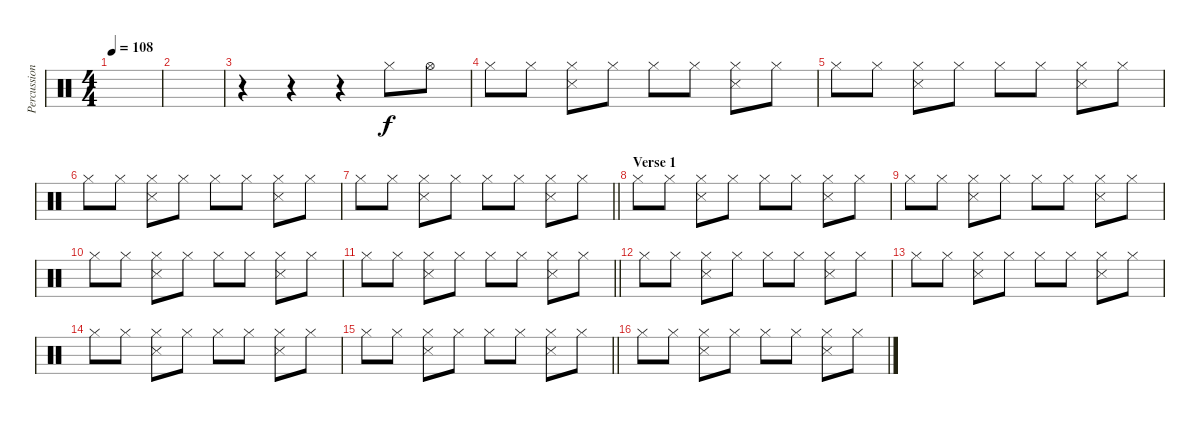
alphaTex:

\track ("Percussion" "Percussion") {instrument percussion}
\staff {score}
\articulation defaults
\ts (4 4)
\tempo 108
\clef neutral
\ks c
|
|
r.4 r.4 r.4 "Hi-Hat (closed)".8 "Hi-Hat (open)".8 |
"Hi-Hat (closed)".8 "Hi-Hat (closed)".8 ("Hi-Hat (closed)" "Snare (side stick) 3").8 "Hi-Hat (closed)".8 "Hi-Hat (closed)".8 "Hi-Hat (closed)".8 ("Hi-Hat (closed)" "Snare (side stick) 3").8 "Hi-Hat (closed)".8 |
"Hi-Hat (closed)".8 "Hi-Hat (closed)".8 ("Hi-Hat (closed)" "Snare (side stick) 3").8 "Hi-Hat (closed)".8 "Hi-Hat (closed)".8 "Hi-Hat (closed)".8 ("Hi-Hat (closed)" "Snare (side stick) 3").8 "Hi-Hat (closed)".8 |
"Hi-Hat (closed)".8 "Hi-Hat (closed)".8 ("Hi-Hat (closed)" "Snare (side stick) 3").8 "Hi-Hat (closed)".8 "Hi-Hat (closed)".8 "Hi-Hat (closed)".8 ("Hi-Hat (closed)" "Snare (side stick) 3").8 "Hi-Hat (closed)".8 |
\barLineRight lightlight "Hi-Hat (closed)".8 "Hi-Hat (closed)".8
("Hi-Hat (closed)" "Snare (side stick) 3").8 "Hi-Hat (closed)".8 "Hi-Hat (closed)".8 "Hi-Hat (closed)".8 ("Hi-Hat (closed)" "Snare (side stick) 3").8 "Hi-Hat (closed)".8 |
\section ("" "Verse 1")
"Hi-Hat (closed)".8 "Hi-Hat (closed)".8 ("Hi-Hat (closed)" "Snare (side stick) 3").8 "Hi-Hat (closed)".8 "Hi-Hat (closed)".8 "Hi-Hat (closed)".8 ("Hi-Hat (closed)" "Snare (side stick) 3").8 "Hi-Hat (closed)".8 |
"Hi-Hat (closed)".8 "Hi-Hat (closed)".8 ("Hi-Hat (closed)" "Snare (side stick) 3").8 "Hi-Hat (closed)".8 "Hi-Hat (closed)".8 "Hi-Hat (closed)".8 ("Hi-Hat (closed)" "Snare (side stick) 3").8 "Hi-Hat (closed)".8 |
"Hi-Hat (closed)".8 "Hi-Hat (closed)".8 ("Hi-Hat (closed)" "Snare (side stick) 3").8 "Hi-Hat (closed)".8 "Hi-Hat (closed)".8 "Hi-Hat (closed)".8 ("Hi-Hat (closed)" "Snare (side stick) 3").8 "Hi-Hat (closed)".8 |
\barLineRight lightlight "Hi-Hat (closed)".8 "Hi-Hat (closed)".8
("Hi-Hat (closed)" "Snare (side stick) 3").8 "Hi-Hat (closed)".8 "Hi-Hat (closed)".8 "Hi-Hat (closed)".8 ("Hi-Hat (closed)" "Snare (side stick) 3").8 "Hi-Hat (closed)".8 |
"Hi-Hat (closed)".8 "Hi-Hat (closed)".8 ("Hi-Hat (closed)" "Snare (side stick) 3").8 "Hi-Hat (closed)".8 "Hi-Hat (closed)".8 "Hi-Hat (closed)".8 ("Hi-Hat (closed)" "Snare (side stick) 3").8 "Hi-Hat (closed)".8 |
"Hi-Hat (closed)".8 "Hi-Hat (closed)".8 ("Hi-Hat (closed)" "Snare (side stick) 3").8 "Hi-Hat (closed)".8 "Hi-Hat (closed)".8 "Hi-Hat (closed)".8 ("Hi-Hat (closed)" "Snare (side stick) 3").8 "Hi-Hat (closed)".8 |
"Hi-Hat (closed)".8 "Hi-Hat (closed)".8 ("Hi-Hat (closed)" "Snare (side stick) 3").8 "Hi-Hat (closed)".8 "Hi-Hat (closed)".8 "Hi-Hat (closed)".8 ("Hi-Hat (closed)" "Snare (side stick) 3").8 "Hi-Hat (closed)".8 |
\barLineRight lightlight "Hi-Hat (closed)".8 "Hi-Hat (closed)".8
("Hi-Hat (closed)" "Snare (side stick) 3").8 "Hi-Hat (closed)".8 "Hi-Hat (closed)".8 "Hi-Hat (closed)".8 ("Hi-Hat (closed)" "Snare (side stick) 3").8 "Hi-Hat (closed)".8 |
"Hi-Hat (closed)".8 "Hi-Hat (closed)".8 ("Hi-Hat (closed)" "Snare (side stick) 3").8 "Hi-Hat (closed)".8 "Hi-Hat (closed)".8 "Hi-Hat (closed)".8 ("Hi-Hat (closed)" "Snare (side stick) 3").8 "Hi-Hat (closed)".8
